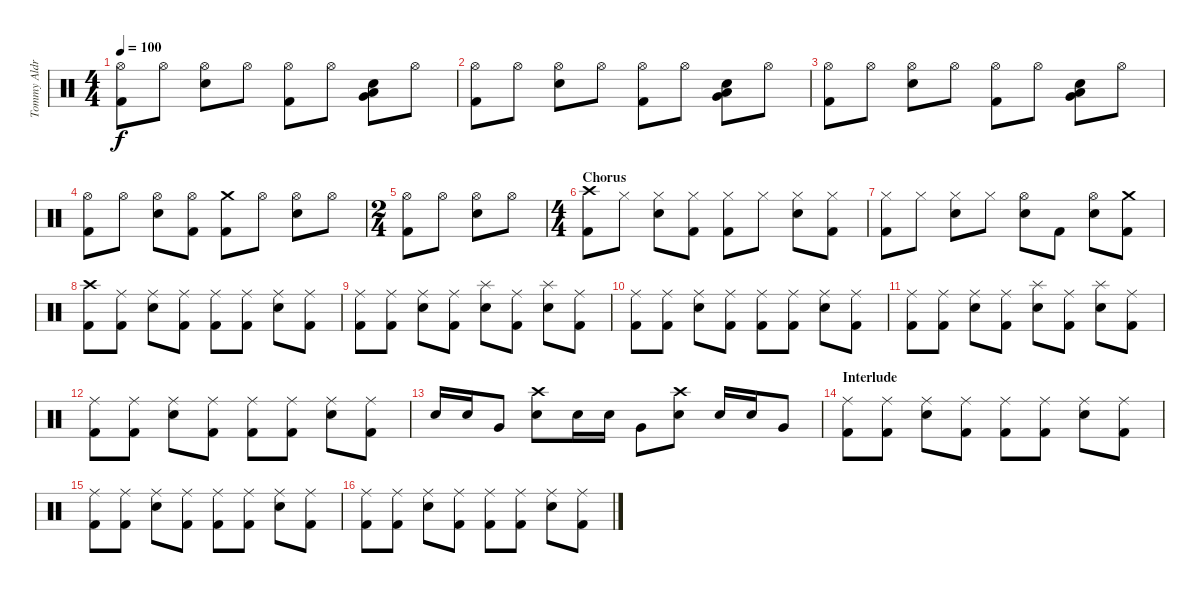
\track ("Tommy Aldridge" "Tommy Aldr") {instrument percussion}
\staff {score}
\articulation defaults
\ts (4 4)
\tempo 100
\clef neutral
\ks aminor
("Hi-Hat (open)" "Kick (hit) 2").8{dy f} "Hi-Hat (open)".8 ("Hi-Hat (open)" "Electric Snare (hit)").8 "Hi-Hat (open)".8 ("Hi-Hat (open)" "Kick (hit) 2").8 "Hi-Hat (open)".8 ("Very Low Tom (hit)" "Low Floor Tom (hit)" "Electric Snare (hit)").8 "Hi-Hat (open)".8 |
("Hi-Hat (open)" "Kick (hit) 2").8 "Hi-Hat (open)".8 ("Hi-Hat (open)" "Electric Snare (hit)").8 "Hi-Hat (open)".8 ("Hi-Hat (open)" "Kick (hit) 2").8 "Hi-Hat (open)".8 ("Very Low Tom (hit)" "Low Floor Tom (hit)" "Electric Snare (hit)").8 "Hi-Hat (open)".8 |
("Hi-Hat (open)" "Kick (hit) 2").8 "Hi-Hat (open)".8 ("Hi-Hat (open)" "Electric Snare (hit)").8 "Hi-Hat (open)".8 ("Hi-Hat (open)" "Kick (hit) 2").8 "Hi-Hat (open)".8 ("Very Low Tom (hit)" "Low Floor Tom (hit)" "Electric Snare (hit)").8 "Hi-Hat (open)".8 |
("Hi-Hat (open)" "Kick (hit) 2").8 "Hi-Hat (open)".8 ("Hi-Hat (open)" "Electric Snare (hit)").8 ("Hi-Hat (open)" "Kick (hit) 2").8 ("Crash medium (hit)" "Kick (hit) 2").8 "Hi-Hat (open)".8 ("Hi-Hat (open)" "Electric Snare (hit)").8 "Hi-Hat (open)".8 |
\ts (2 4)
("Hi-Hat (open)" "Kick (hit) 2").8 "Hi-Hat (open)".8 ("Hi-Hat (open)" "Electric Snare (hit)").8 "Hi-Hat (open)".8 |
\ts (4 4)
\section ("" "Chorus")
("Crash high (hit)" "Kick (hit) 2").8 "Hi-Hat (closed)".8 ("Hi-Hat (closed)" "Electric Snare (hit)").8 ("Hi-Hat (closed)" "Kick (hit) 2").8 ("Hi-Hat (closed)" "Kick (hit) 2").8 "Hi-Hat (closed)".8 ("Hi-Hat (closed)" "Electric Snare (hit)").8 ("Hi-Hat (closed)" "Kick (hit) 2").8 |
("Hi-Hat (closed)" "Kick (hit) 2").8 "Hi-Hat (closed)".8 ("Hi-Hat (closed)" "Electric Snare (hit)").8 "Hi-Hat (closed)".8 ("Hi-Hat (open)" "Electric Snare (hit)").8 "Kick (hit) 2".8 ("Hi-Hat (open)" "Electric Snare (hit)").8 ("Crash medium (hit)" "Kick (hit) 2").8 |
("Crash high (hit)" "Kick (hit) 2").8 ("Ride (middle)" "Kick (hit) 2").8 ("Ride (middle)" "Electric Snare (hit)").8 ("Ride (middle)" "Kick (hit) 2").8 ("Ride (middle)" "Kick (hit) 2").8 ("Ride (middle)" "Kick (hit) 2").8 ("Ride (middle)" "Electric Snare (hit)").8 ("Ride (middle)" "Kick (hit) 2").8 |
("Ride (middle)" "Kick (hit) 2").8 ("Ride (middle)" "Kick (hit) 2").8 ("Ride (middle)" "Electric Snare (hit)").8 ("Ride (middle)" "Kick (hit) 2").8 ("Splash (hit)" "Electric Snare (hit)").8 ("Ride (middle)" "Kick (hit) 2").8 ("Splash (hit)" "Electric Snare (hit)").8 ("Ride (middle)" "Kick (hit) 2").8 |
("Ride (middle)" "Kick (hit) 2").8 ("Ride (middle)" "Kick (hit) 2").8 ("Ride (middle)" "Electric Snare (hit)").8 ("Ride (middle)" "Kick (hit) 2").8 ("Ride (middle)" "Kick (hit) 2").8 ("Ride (middle)" "Kick (hit) 2").8 ("Ride (middle)" "Electric Snare (hit)").8 ("Ride (middle)" "Kick (hit) 2").8 |
("Ride (middle)" "Kick (hit) 2").8 ("Ride (middle)" "Kick (hit) 2").8 ("Ride (middle)" "Electric Snare (hit)").8 ("Ride (middle)" "Kick (hit) 2").8 ("Splash (hit)" "Electric Snare (hit)").8 ("Ride (middle)" "Kick (hit) 2").8 ("Splash (hit)" "Electric Snare (hit)").8 ("Ride (middle)" "Kick (hit) 2").8 |
("Ride (middle)" "Kick (hit) 2").8 ("Ride (middle)" "Kick (hit) 2").8 ("Ride (middle)" "Electric Snare (hit)").8 ("Ride (middle)" "Kick (hit) 2").8 ("Ride (middle)" "Kick (hit) 2").8 ("Ride (middle)" "Kick (hit) 2").8 ("Ride (middle)" "Electric Snare (hit)").8 ("Ride (middle)" "Kick (hit) 2").8 |
"Electric Snare (hit)".16 "Electric Snare (hit)".16 "Very Low Tom (hit)".8 ("Crash high (hit)" "Electric Snare (hit)").8 "Electric Snare (hit)".16 "Electric Snare (hit)".16 "Very Low Tom (hit)".8 ("Crash high (hit)" "Electric Snare (hit)").8 "Electric Snare (hit)".16 "Electric Snare (hit)".16 "Very Low Tom (hit)".8 |
\section ("" "Interlude")
("Ride (middle)" "Kick (hit) 2").8 ("Ride (middle)" "Kick (hit) 2").8 ("Ride (middle)" "Electric Snare (hit)").8 ("Ride (middle)" "Kick (hit) 2").8 ("Ride (middle)" "Kick (hit) 2").8 ("Ride (middle)" "Kick (hit) 2").8 ("Ride (middle)" "Electric Snare (hit)").8 ("Ride (middle)" "Kick (hit) 2").8 |
("Ride (middle)" "Kick (hit) 2").8 ("Ride (middle)" "Kick (hit) 2").8 ("Ride (middle)" "Electric Snare (hit)").8 ("Ride (middle)" "Kick (hit) 2").8 ("Ride (middle)" "Kick (hit) 2").8 ("Ride (middle)" "Kick (hit) 2").8 ("Ride (middle)" "Electric Snare (hit)").8 ("Ride (middle)" "Kick (hit) 2").8 |
("Ride (middle)" "Kick (hit) 2").8 ("Ride (middle)" "Kick (hit) 2").8 ("Ride (middle)" "Electric Snare (hit)").8 ("Ride (middle)" "Kick (hit) 2").8 ("Ride (middle)" "Kick (hit) 2").8 ("Ride (middle)" "Kick (hit) 2").8 ("Ride (middle)" "Electric Snare (hit)").8 ("Ride (middle)" "Kick (hit) 2").8
